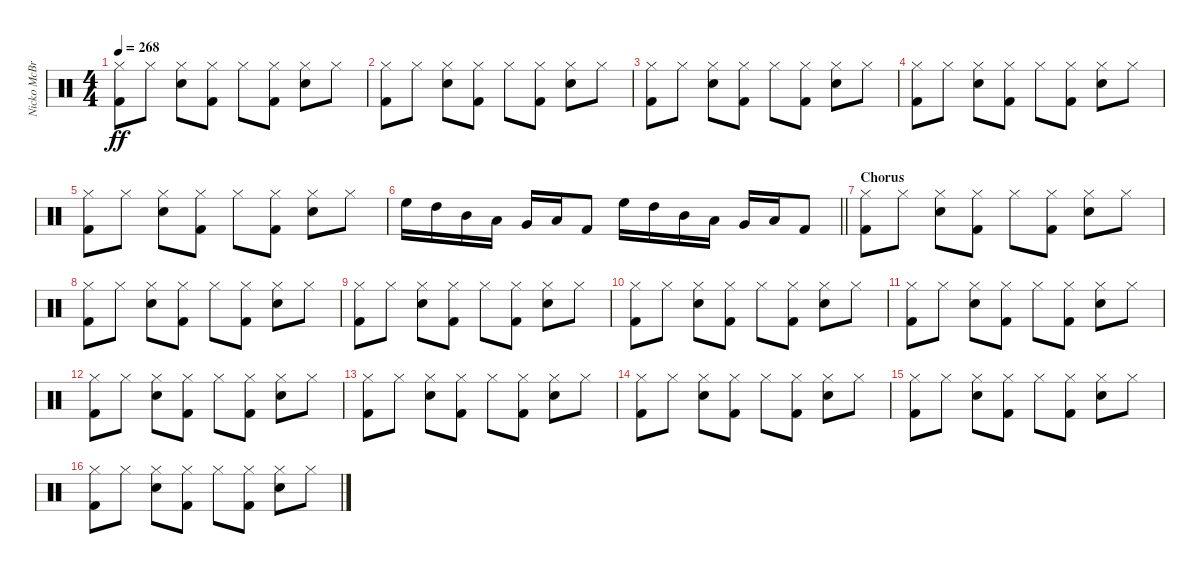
\track ("Nicko McBrain" "Nicko McBr") {instrument percussion}
\staff {score}
\articulation defaults
\ts (4 4)
\tempo 268
\clef neutral
\ks c
("Kick (hit) 2" "Hi-Hat (closed)").8{dy ff} "Hi-Hat (closed)".8 ("Snare (hit) 2" "Hi-Hat (closed)").8 ("Kick (hit) 2" "Hi-Hat (closed)").8 "Hi-Hat (closed)".8 ("Kick (hit) 2" "Hi-Hat (closed)").8 ("Snare (hit) 2" "Hi-Hat (closed)").8 "Hi-Hat (closed)".8 |
("Kick (hit) 2" "Hi-Hat (closed)").8 "Hi-Hat (closed)".8 ("Snare (hit) 2" "Hi-Hat (closed)").8 ("Kick (hit) 2" "Hi-Hat (closed)").8 "Hi-Hat (closed)".8 ("Kick (hit) 2" "Hi-Hat (closed)").8 ("Snare (hit) 2" "Hi-Hat (closed)").8 "Hi-Hat (closed)".8 |
("Kick (hit) 2" "Hi-Hat (closed)").8 "Hi-Hat (closed)".8 ("Snare (hit) 2" "Hi-Hat (closed)").8 ("Kick (hit) 2" "Hi-Hat (closed)").8 "Hi-Hat (closed)".8 ("Kick (hit) 2" "Hi-Hat (closed)").8 ("Snare (hit) 2" "Hi-Hat (closed)").8 "Hi-Hat (closed)".8 |
("Kick (hit) 2" "Hi-Hat (closed)").8 "Hi-Hat (closed)".8 ("Snare (hit) 2" "Hi-Hat (closed)").8 ("Kick (hit) 2" "Hi-Hat (closed)").8 "Hi-Hat (closed)".8 ("Kick (hit) 2" "Hi-Hat (closed)").8 ("Snare (hit) 2" "Hi-Hat (closed)").8 "Hi-Hat (closed)".8 |
("Kick (hit) 2" "Hi-Hat (closed)").8 "Hi-Hat (closed)".8 ("Snare (hit) 2" "Hi-Hat (closed)").8 ("Kick (hit) 2" "Hi-Hat (closed)").8 "Hi-Hat (closed)".8 ("Kick (hit) 2" "Hi-Hat (closed)").8 ("Snare (hit) 2" "Hi-Hat (closed)").8 "Hi-Hat (closed)".8 |
\barLineRight lightlight "High Floor Tom (hit)".16 "High Tom (hit)".16 "Mid Tom (hit)".16 "Low Tom (hit)".16 "Very Low Tom (hit)".16 "Low Floor Tom (hit)".16 "Kick (hit) 2".8 "High Floor Tom (hit)".16 "High Tom (hit)".16 "Mid Tom (hit)".16 "Low Tom (hit)".16 "Very Low Tom (hit)".16 "Low Floor Tom (hit)".16 "Kick (hit) 2".8
|
\section ("" "Chorus")
("Kick (hit) 2" "Hi-Hat (closed)").8 "Hi-Hat (closed)".8 ("Snare (hit) 2" "Hi-Hat (closed)").8 ("Kick (hit) 2" "Hi-Hat (closed)").8 "Hi-Hat (closed)".8 ("Kick (hit) 2" "Hi-Hat (closed)").8 ("Snare (hit) 2" "Hi-Hat (closed)").8 "Hi-Hat (closed)".8 |
("Kick (hit) 2" "Hi-Hat (closed)").8 "Hi-Hat (closed)".8 ("Snare (hit) 2" "Hi-Hat (closed)").8 ("Kick (hit) 2" "Hi-Hat (closed)").8 "Hi-Hat (closed)".8 ("Kick (hit) 2" "Hi-Hat (closed)").8 ("Snare (hit) 2" "Hi-Hat (closed)").8 "Hi-Hat (closed)".8 |
("Kick (hit) 2" "Hi-Hat (closed)").8 "Hi-Hat (closed)".8 ("Snare (hit) 2" "Hi-Hat (closed)").8 ("Kick (hit) 2" "Hi-Hat (closed)").8 "Hi-Hat (closed)".8 ("Kick (hit) 2" "Hi-Hat (closed)").8 ("Snare (hit) 2" "Hi-Hat (closed)").8 "Hi-Hat (closed)".8 |
("Kick (hit) 2" "Hi-Hat (closed)").8 "Hi-Hat (closed)".8 ("Snare (hit) 2" "Hi-Hat (closed)").8 ("Kick (hit) 2" "Hi-Hat (closed)").8 "Hi-Hat (closed)".8 ("Kick (hit) 2" "Hi-Hat (closed)").8 ("Snare (hit) 2" "Hi-Hat (closed)").8 "Hi-Hat (closed)".8 |
("Kick (hit) 2" "Hi-Hat (closed)").8 "Hi-Hat (closed)".8 ("Snare (hit) 2" "Hi-Hat (closed)").8 ("Kick (hit) 2" "Hi-Hat (closed)").8 "Hi-Hat (closed)".8 ("Kick (hit) 2" "Hi-Hat (closed)").8 ("Snare (hit) 2" "Hi-Hat (closed)").8 "Hi-Hat (closed)".8 |
("Kick (hit) 2" "Hi-Hat (closed)").8 "Hi-Hat (closed)".8 ("Snare (hit) 2" "Hi-Hat (closed)").8 ("Kick (hit) 2" "Hi-Hat (closed)").8 "Hi-Hat (closed)".8 ("Kick (hit) 2" "Hi-Hat (closed)").8 ("Snare (hit) 2" "Hi-Hat (closed)").8 "Hi-Hat (closed)".8 |
("Kick (hit) 2" "Hi-Hat (closed)").8 "Hi-Hat (closed)".8 ("Snare (hit) 2" "Hi-Hat (closed)").8 ("Kick (hit) 2" "Hi-Hat (closed)").8 "Hi-Hat (closed)".8 ("Kick (hit) 2" "Hi-Hat (closed)").8 ("Snare (hit) 2" "Hi-Hat (closed)").8 "Hi-Hat (closed)".8 |
("Kick (hit) 2" "Hi-Hat (closed)").8 "Hi-Hat (closed)".8 ("Snare (hit) 2" "Hi-Hat (closed)").8 ("Kick (hit) 2" "Hi-Hat (closed)").8 "Hi-Hat (closed)".8 ("Kick (hit) 2" "Hi-Hat (closed)").8 ("Snare (hit) 2" "Hi-Hat (closed)").8 "Hi-Hat (closed)".8 |
("Kick (hit) 2" "Hi-Hat (closed)").8 "Hi-Hat (closed)".8 ("Snare (hit) 2" "Hi-Hat (closed)").8 ("Kick (hit) 2" "Hi-Hat (closed)").8 "Hi-Hat (closed)".8 ("Kick (hit) 2" "Hi-Hat (closed)").8 ("Snare (hit) 2" "Hi-Hat (closed)").8 "Hi-Hat (closed)".8 |
("Kick (hit) 2" "Hi-Hat (closed)").8 "Hi-Hat (closed)".8 ("Snare (hit) 2" "Hi-Hat (closed)").8 ("Kick (hit) 2" "Hi-Hat (closed)").8 "Hi-Hat (closed)".8 ("Kick (hit) 2" "Hi-Hat (closed)").8 ("Snare (hit) 2" "Hi-Hat (closed)").8 "Hi-Hat (closed)".8
